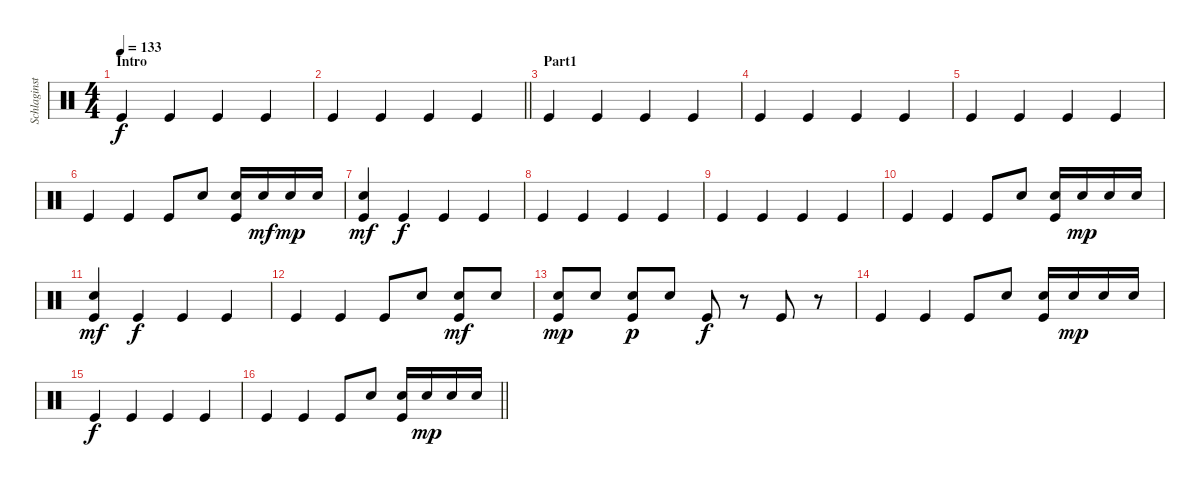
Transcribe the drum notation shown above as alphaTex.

\track ("Schlaginstrumente - Auswahl" "Schlaginst") {instrument percussion}
\staff {score}
\articulation defaults
\ts (4 4)
\section ("" "Intro")
\tempo 133
\clef neutral
\ks c "Kick (hit)".4{dy f} "Kick (hit)".4 "Kick (hit)".4 "Kick (hit)".4
|
\barLineRight lightlight "Kick (hit)".4 "Kick (hit)".4 "Kick (hit)".4 "Kick (hit)".4
|
\section ("" "Part1")
"Kick (hit)".4 "Kick (hit)".4 "Kick (hit)".4 "Kick (hit)".4 |
"Kick (hit)".4 "Kick (hit)".4 "Kick (hit)".4 "Kick (hit)".4 |
"Kick (hit)".4 "Kick (hit)".4 "Kick (hit)".4 "Kick (hit)".4 |
"Kick (hit)".4 "Kick (hit)".4 "Kick (hit)".8 "Snare (hit) 2".8 ("Snare (hit) 2" "Kick (hit)").16 "Snare (hit) 2".16{dy mf} "Snare (hit) 2".16{dy mp} "Snare (hit) 2".16 |
("Snare (hit) 2" "Kick (hit)").4{dy mf} "Kick (hit)".4{dy f} "Kick (hit)".4 "Kick (hit)".4 |
"Kick (hit)".4 "Kick (hit)".4 "Kick (hit)".4 "Kick (hit)".4 |
"Kick (hit)".4 "Kick (hit)".4 "Kick (hit)".4 "Kick (hit)".4 |
"Kick (hit)".4 "Kick (hit)".4 "Kick (hit)".8 "Snare (hit) 2".8 ("Snare (hit) 2" "Kick (hit)").16 "Snare (hit) 2".16{dy mp} "Snare (hit) 2".16 "Snare (hit) 2".16 |
("Snare (hit) 2" "Kick (hit)").4{dy mf} "Kick (hit)".4{dy f} "Kick (hit)".4 "Kick (hit)".4 |
"Kick (hit)".4 "Kick (hit)".4 "Kick (hit)".8 "Snare (hit) 2".8 ("Snare (hit) 2" "Kick (hit)").8{dy mf} "Snare (hit) 2".8 |
("Snare (hit) 2" "Kick (hit)").8{dy mp} "Snare (hit) 2".8 ("Snare (hit) 2" "Kick (hit)").8{dy p} "Snare (hit) 2".8 "Kick (hit)".8{dy f} r.8 "Kick (hit)".8 r.8 |
"Kick (hit)".4 "Kick (hit)".4 "Kick (hit)".8 "Snare (hit) 2".8 ("Snare (hit) 2" "Kick (hit)").16 "Snare (hit) 2".16{dy mp} "Snare (hit) 2".16 "Snare (hit) 2".16 |
"Kick (hit)".4{dy f} "Kick (hit)".4 "Kick (hit)".4 "Kick (hit)".4 |
\barLineRight lightlight "Kick (hit)".4 "Kick (hit)".4 "Kick (hit)".8 "Snare (hit) 2".8
("Snare (hit) 2" "Kick (hit)").16 "Snare (hit) 2".16{dy mp} "Snare (hit) 2".16 "Snare (hit) 2".16
